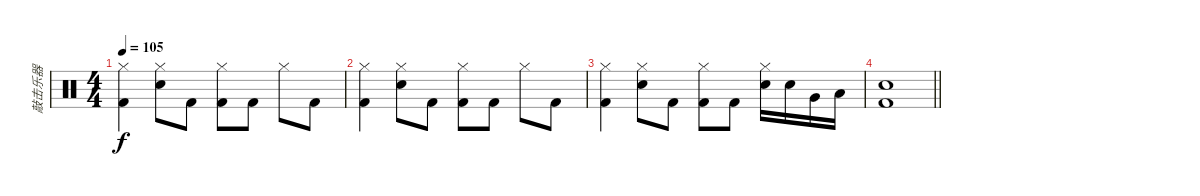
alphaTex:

\track ("敲击乐器" "敲击乐器") {instrument percussion}
\staff {score}
\articulation defaults
\ts (4 4)
\tempo 105
\clef neutral
\ks c
("Kick (hit) 2" "Hi-Hat (closed)").4{dy f} ("Electric Snare (hit)" "Hi-Hat (closed)").8 "Kick (hit) 2".8 ("Kick (hit) 2" "Hi-Hat (closed)").8 "Kick (hit) 2".8 "Hi-Hat (closed)".8 "Kick (hit) 2".8 |
("Kick (hit) 2" "Hi-Hat (closed)").4 ("Electric Snare (hit)" "Hi-Hat (closed)").8 "Kick (hit) 2".8 ("Kick (hit) 2" "Hi-Hat (closed)").8 "Kick (hit) 2".8 "Hi-Hat (closed)".8 "Kick (hit) 2".8 |
("Kick (hit) 2" "Hi-Hat (closed)").4 ("Electric Snare (hit)" "Hi-Hat (closed)").8 "Kick (hit) 2".8 ("Kick (hit) 2" "Hi-Hat (closed)").8 "Kick (hit) 2".8 ("Electric Snare (hit)" "Hi-Hat (closed)").16 "Electric Snare (hit)".16 "Very Low Tom (hit)".16 "Low Floor Tom (hit)".16 |
\barLineRight lightlight
("Kick (hit) 2" "Electric Snare (hit)").1
